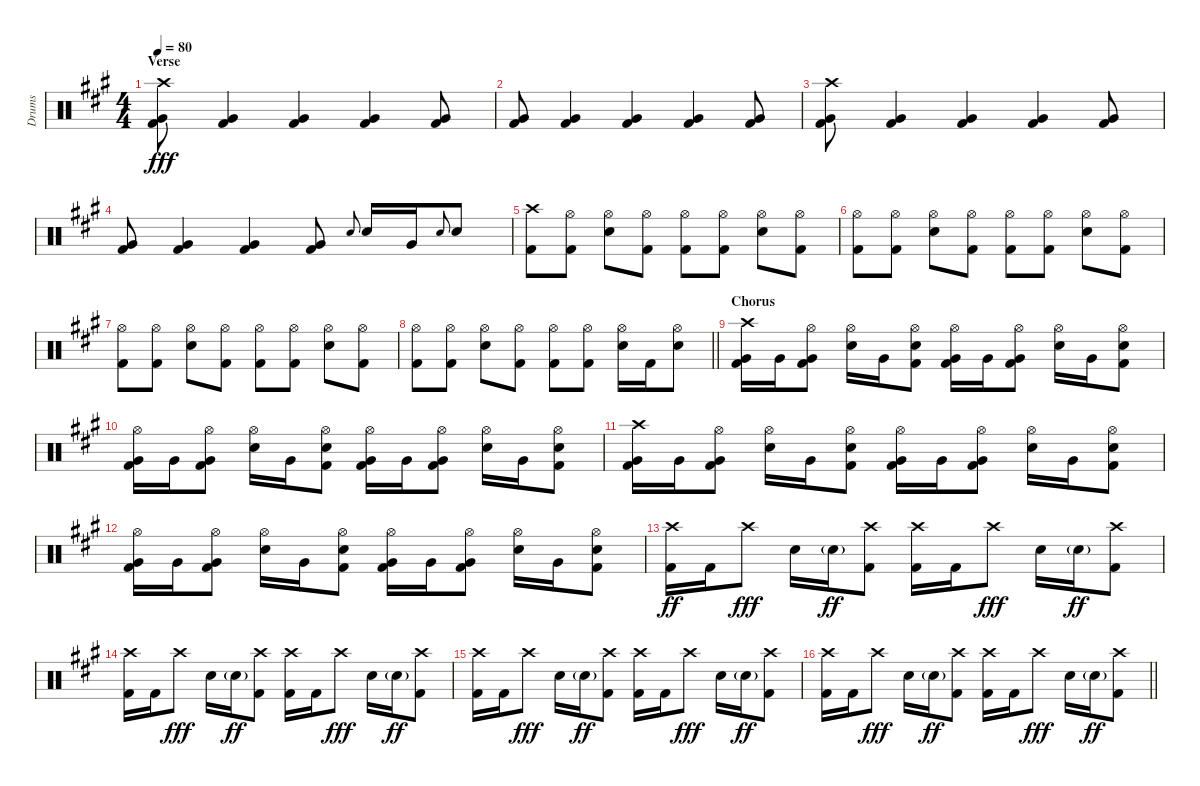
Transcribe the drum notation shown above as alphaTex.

\track ("Drums" "Drums") {instrument percussion}
\staff {score}
\articulation defaults
\ts (4 4)
\section ("" "Verse")
\tempo 80
\clef neutral
\ks f#minor
("Crash high (hit)" "Very Low Tom (hit)" "Kick (hit) 2").8{dy fff} ("Very Low Tom (hit)" "Kick (hit) 2").4 ("Very Low Tom (hit)" "Kick (hit) 2").4 ("Very Low Tom (hit)" "Kick (hit) 2").4 ("Very Low Tom (hit)" "Kick (hit) 2").8 |
("Very Low Tom (hit)" "Kick (hit) 2").8 ("Very Low Tom (hit)" "Kick (hit) 2").4 ("Very Low Tom (hit)" "Kick (hit) 2").4 ("Very Low Tom (hit)" "Kick (hit) 2").4 ("Very Low Tom (hit)" "Kick (hit) 2").8 |
("Crash high (hit)" "Very Low Tom (hit)" "Kick (hit) 2").8 ("Very Low Tom (hit)" "Kick (hit) 2").4 ("Very Low Tom (hit)" "Kick (hit) 2").4 ("Very Low Tom (hit)" "Kick (hit) 2").4 ("Very Low Tom (hit)" "Kick (hit) 2").8 |
("Very Low Tom (hit)" "Kick (hit) 2").8 ("Very Low Tom (hit)" "Kick (hit) 2").4 ("Very Low Tom (hit)" "Kick (hit) 2").4 ("Very Low Tom (hit)" "Kick (hit) 2").8 "Electric Snare (hit)".8{gr onbeat} "Electric Snare (hit)".16 "Very Low Tom (hit)".16 "Electric Snare (hit)".8{gr onbeat} "Electric Snare (hit)".8 |
("Crash high (hit)" "Kick (hit) 2").8 ("Hi-Hat (open)" "Kick (hit) 2").8 ("Hi-Hat (open)" "Electric Snare (hit)").8 ("Hi-Hat (open)" "Kick (hit) 2").8 ("Hi-Hat (open)" "Kick (hit) 2").8 ("Hi-Hat (open)" "Kick (hit) 2").8 ("Hi-Hat (open)" "Electric Snare (hit)").8 ("Hi-Hat (open)" "Kick (hit) 2").8 |
("Hi-Hat (open)" "Kick (hit) 2").8 ("Hi-Hat (open)" "Kick (hit) 2").8 ("Hi-Hat (open)" "Electric Snare (hit)").8 ("Hi-Hat (open)" "Kick (hit) 2").8 ("Hi-Hat (open)" "Kick (hit) 2").8 ("Hi-Hat (open)" "Kick (hit) 2").8 ("Hi-Hat (open)" "Electric Snare (hit)").8 ("Hi-Hat (open)" "Kick (hit) 2").8 |
("Hi-Hat (open)" "Kick (hit) 2").8 ("Hi-Hat (open)" "Kick (hit) 2").8 ("Hi-Hat (open)" "Electric Snare (hit)").8 ("Hi-Hat (open)" "Kick (hit) 2").8 ("Hi-Hat (open)" "Kick (hit) 2").8 ("Hi-Hat (open)" "Kick (hit) 2").8 ("Hi-Hat (open)" "Electric Snare (hit)").8 ("Hi-Hat (open)" "Kick (hit) 2").8 |
\barLineRight lightlight
("Hi-Hat (open)" "Kick (hit) 2").8 ("Hi-Hat (open)" "Kick (hit) 2").8 ("Hi-Hat (open)" "Electric Snare (hit)").8 ("Hi-Hat (open)" "Kick (hit) 2").8 ("Hi-Hat (open)" "Kick (hit) 2").8 ("Hi-Hat (open)" "Kick (hit) 2").8 ("Hi-Hat (open)" "Electric Snare (hit)").16 "Kick (hit) 2".16 ("Hi-Hat (open)" "Electric Snare (hit)").8 |
\section ("" "Chorus")
("Crash high (hit)" "Very Low Tom (hit)" "Kick (hit) 2").16 "Very Low Tom (hit)".16 ("Hi-Hat (open)" "Very Low Tom (hit)" "Kick (hit) 2").8 ("Hi-Hat (open)" "Electric Snare (hit)").16 "Very Low Tom (hit)".16 ("Hi-Hat (open)" "Electric Snare (hit)" "Kick (hit) 2").8 ("Hi-Hat (open)" "Very Low Tom (hit)" "Kick (hit) 2").16 "Very Low Tom (hit)".16 ("Hi-Hat (open)" "Very Low Tom (hit)" "Kick (hit) 2").8 ("Hi-Hat (open)" "Electric Snare (hit)").16 "Very Low Tom (hit)".16 ("Hi-Hat (open)" "Electric Snare (hit)" "Kick (hit) 2").8 |
("Hi-Hat (open)" "Very Low Tom (hit)" "Kick (hit) 2").16 "Very Low Tom (hit)".16 ("Hi-Hat (open)" "Very Low Tom (hit)" "Kick (hit) 2").8 ("Hi-Hat (open)" "Electric Snare (hit)").16 "Very Low Tom (hit)".16 ("Hi-Hat (open)" "Electric Snare (hit)" "Kick (hit) 2").8 ("Hi-Hat (open)" "Very Low Tom (hit)" "Kick (hit) 2").16 "Very Low Tom (hit)".16 ("Hi-Hat (open)" "Very Low Tom (hit)" "Kick (hit) 2").8 ("Hi-Hat (open)" "Electric Snare (hit)").16 "Very Low Tom (hit)".16 ("Hi-Hat (open)" "Electric Snare (hit)" "Kick (hit) 2").8 |
("Crash high (hit)" "Very Low Tom (hit)" "Kick (hit) 2").16 "Very Low Tom (hit)".16 ("Hi-Hat (open)" "Very Low Tom (hit)" "Kick (hit) 2").8 ("Hi-Hat (open)" "Electric Snare (hit)").16 "Very Low Tom (hit)".16 ("Hi-Hat (open)" "Electric Snare (hit)" "Kick (hit) 2").8 ("Hi-Hat (open)" "Very Low Tom (hit)" "Kick (hit) 2").16 "Very Low Tom (hit)".16 ("Hi-Hat (open)" "Very Low Tom (hit)" "Kick (hit) 2").8 ("Hi-Hat (open)" "Electric Snare (hit)").16 "Very Low Tom (hit)".16 ("Hi-Hat (open)" "Electric Snare (hit)" "Kick (hit) 2").8 |
("Hi-Hat (open)" "Very Low Tom (hit)" "Kick (hit) 2").16 "Very Low Tom (hit)".16 ("Hi-Hat (open)" "Very Low Tom (hit)" "Kick (hit) 2").8 ("Hi-Hat (open)" "Electric Snare (hit)").16 "Very Low Tom (hit)".16 ("Hi-Hat (open)" "Electric Snare (hit)" "Kick (hit) 2").8 ("Hi-Hat (open)" "Very Low Tom (hit)" "Kick (hit) 2").16 "Very Low Tom (hit)".16 ("Hi-Hat (open)" "Very Low Tom (hit)" "Kick (hit) 2").8 ("Hi-Hat (open)" "Electric Snare (hit)").16 "Very Low Tom (hit)".16 ("Hi-Hat (open)" "Electric Snare (hit)" "Kick (hit) 2").8 |
("Crash high (hit)" "Kick (hit) 2").16{dy ff} "Kick (hit) 2".16 "Crash high (hit)".8{dy fff} "Electric Snare (hit)".16 "Electric Snare (hit)"{g}.16{dy ff} ("Crash high (hit)" "Kick (hit) 2").8 ("Crash high (hit)" "Kick (hit) 2").16 "Kick (hit) 2".16 "Crash high (hit)".8{dy fff} "Electric Snare (hit)".16 "Electric Snare (hit)"{g}.16{dy ff} ("Crash high (hit)" "Kick (hit) 2").8 |
("Crash high (hit)" "Kick (hit) 2").16 "Kick (hit) 2".16 "Crash high (hit)".8{dy fff} "Electric Snare (hit)".16 "Electric Snare (hit)"{g}.16{dy ff} ("Crash high (hit)" "Kick (hit) 2").8 ("Crash high (hit)" "Kick (hit) 2").16 "Kick (hit) 2".16 "Crash high (hit)".8{dy fff} "Electric Snare (hit)".16 "Electric Snare (hit)"{g}.16{dy ff} ("Crash high (hit)" "Kick (hit) 2").8 |
("Crash high (hit)" "Kick (hit) 2").16 "Kick (hit) 2".16 "Crash high (hit)".8{dy fff} "Electric Snare (hit)".16 "Electric Snare (hit)"{g}.16{dy ff} ("Crash high (hit)" "Kick (hit) 2").8 ("Crash high (hit)" "Kick (hit) 2").16 "Kick (hit) 2".16 "Crash high (hit)".8{dy fff} "Electric Snare (hit)".16 "Electric Snare (hit)"{g}.16{dy ff} ("Crash high (hit)" "Kick (hit) 2").8 |
\barLineRight lightlight
("Crash high (hit)" "Kick (hit) 2").16 "Kick (hit) 2".16 "Crash high (hit)".8{dy fff} "Electric Snare (hit)".16 "Electric Snare (hit)"{g}.16{dy ff} ("Crash high (hit)" "Kick (hit) 2").8 ("Crash high (hit)" "Kick (hit) 2").16 "Kick (hit) 2".16 "Crash high (hit)".8{dy fff} "Electric Snare (hit)".16 "Electric Snare (hit)"{g}.16{dy ff} ("Crash high (hit)" "Kick (hit) 2").8
